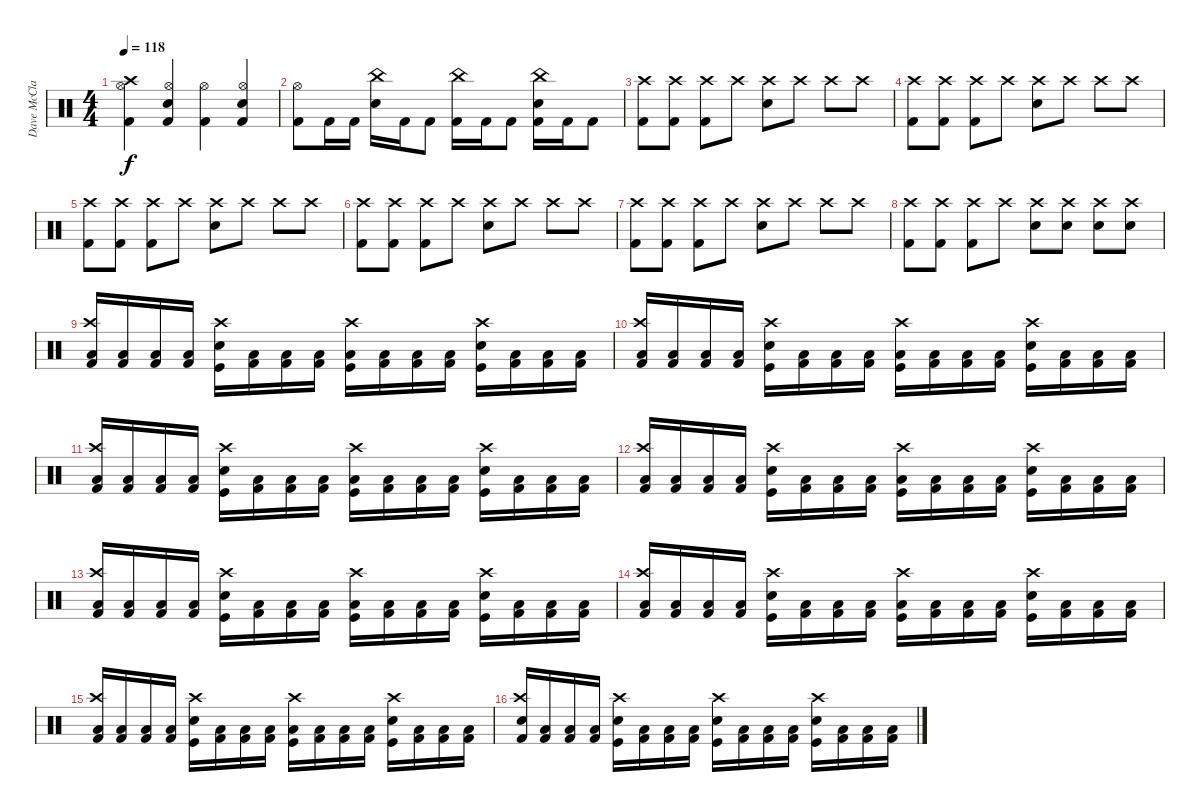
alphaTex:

\track ("Dave McClain" "Dave McCla") {instrument percussion}
\staff {score}
\articulation defaults
\ts (4 4)
\tempo 118
\clef neutral
\ks c
("Kick (hit) 2" "Hi-Hat (open)" "Crash high (hit)").4{dy f} ("Kick (hit) 2" "Snare (hit) 2" "Hi-Hat (open)").4 ("Kick (hit) 2" "Hi-Hat (open)").4 ("Kick (hit) 2" "Snare (hit) 2" "Hi-Hat (open)").4 |
("Kick (hit) 2" "Hi-Hat (open)").8 "Kick (hit) 2".16 "Kick (hit) 2".16 ("Snare (hit) 2" "China (hit)").16 "Kick (hit) 2".16 "Kick (hit) 2".8 ("Kick (hit) 2" "China (hit)").16 "Kick (hit) 2".16 "Kick (hit) 2".8 ("Kick (hit) 2" "Snare (hit) 2" "China (hit)").16 "Kick (hit) 2".16 "Kick (hit) 2".8 |
("Kick (hit) 2" "Crash high (hit)").8 ("Kick (hit) 2" "Crash high (hit)").8 ("Kick (hit) 2" "Crash high (hit)").8 "Crash high (hit)".8 ("Snare (hit) 2" "Crash high (hit)").8 "Crash high (hit)".8 "Crash high (hit)".8 "Crash high (hit)".8 |
("Kick (hit) 2" "Crash high (hit)").8 ("Kick (hit) 2" "Crash high (hit)").8 ("Kick (hit) 2" "Crash high (hit)").8 "Crash high (hit)".8 ("Snare (hit) 2" "Crash high (hit)").8 "Crash high (hit)".8 "Crash high (hit)".8 "Crash high (hit)".8 |
("Kick (hit) 2" "Crash high (hit)").8 ("Kick (hit) 2" "Crash high (hit)").8 ("Kick (hit) 2" "Crash high (hit)").8 "Crash high (hit)".8 ("Snare (hit) 2" "Crash high (hit)").8 "Crash high (hit)".8 "Crash high (hit)".8 "Crash high (hit)".8 |
("Kick (hit) 2" "Crash high (hit)").8 ("Kick (hit) 2" "Crash high (hit)").8 ("Kick (hit) 2" "Crash high (hit)").8 "Crash high (hit)".8 ("Snare (hit) 2" "Crash high (hit)").8 "Crash high (hit)".8 "Crash high (hit)".8 "Crash high (hit)".8 |
("Kick (hit) 2" "Crash high (hit)").8 ("Kick (hit) 2" "Crash high (hit)").8 ("Kick (hit) 2" "Crash high (hit)").8 "Crash high (hit)".8 ("Snare (hit) 2" "Crash high (hit)").8 "Crash high (hit)".8 "Crash high (hit)".8 "Crash high (hit)".8 |
("Kick (hit) 2" "Crash high (hit)").8 ("Kick (hit) 2" "Crash high (hit)").8 ("Kick (hit) 2" "Crash high (hit)").8 "Crash high (hit)".8 ("Snare (hit) 2" "Crash high (hit)").8 ("Snare (hit) 2" "Crash high (hit)").8 ("Snare (hit) 2" "Crash high (hit)").8 ("Snare (hit) 2" "Crash high (hit)").8 |
("Kick (hit) 2" "Low Floor Tom (hit)" "Crash high (hit)").16 ("Kick (hit) 2" "Low Floor Tom (hit)").16 ("Kick (hit) 2" "Low Floor Tom (hit)").16 ("Kick (hit) 2" "Low Floor Tom (hit)").16 ("Kick (hit)" "Snare (hit) 2" "Crash high (hit)").16 ("Kick (hit) 2" "Low Floor Tom (hit)").16 ("Kick (hit) 2" "Low Floor Tom (hit)").16 ("Kick (hit) 2" "Low Floor Tom (hit)").16 ("Kick (hit)" "Low Floor Tom (hit)" "Crash high (hit)").16 ("Kick (hit) 2" "Low Floor Tom (hit)").16 ("Kick (hit) 2" "Low Floor Tom (hit)").16 ("Kick (hit) 2" "Low Floor Tom (hit)").16 ("Kick (hit)" "Snare (hit) 2" "Crash high (hit)").16 ("Kick (hit) 2" "Low Floor Tom (hit)").16 ("Kick (hit) 2" "Low Floor Tom (hit)").16 ("Kick (hit) 2" "Low Floor Tom (hit)").16 |
("Kick (hit) 2" "Low Floor Tom (hit)" "Crash high (hit)").16 ("Kick (hit) 2" "Low Floor Tom (hit)").16 ("Kick (hit) 2" "Low Floor Tom (hit)").16 ("Kick (hit) 2" "Low Floor Tom (hit)").16 ("Kick (hit)" "Snare (hit) 2" "Crash high (hit)").16 ("Kick (hit) 2" "Low Floor Tom (hit)").16 ("Kick (hit) 2" "Low Floor Tom (hit)").16 ("Kick (hit) 2" "Low Floor Tom (hit)").16 ("Kick (hit)" "Low Floor Tom (hit)" "Crash high (hit)").16 ("Kick (hit) 2" "Low Floor Tom (hit)").16 ("Kick (hit) 2" "Low Floor Tom (hit)").16 ("Kick (hit) 2" "Low Floor Tom (hit)").16 ("Kick (hit)" "Snare (hit) 2" "Crash high (hit)").16 ("Kick (hit) 2" "Low Floor Tom (hit)").16 ("Kick (hit) 2" "Low Floor Tom (hit)").16 ("Kick (hit) 2" "Low Floor Tom (hit)").16 |
("Kick (hit) 2" "Low Floor Tom (hit)" "Crash high (hit)").16 ("Kick (hit) 2" "Low Floor Tom (hit)").16 ("Kick (hit) 2" "Low Floor Tom (hit)").16 ("Kick (hit) 2" "Low Floor Tom (hit)").16 ("Kick (hit)" "Snare (hit) 2" "Crash high (hit)").16 ("Kick (hit) 2" "Low Floor Tom (hit)").16 ("Kick (hit) 2" "Low Floor Tom (hit)").16 ("Kick (hit) 2" "Low Floor Tom (hit)").16 ("Kick (hit)" "Low Floor Tom (hit)" "Crash high (hit)").16 ("Kick (hit) 2" "Low Floor Tom (hit)").16 ("Kick (hit) 2" "Low Floor Tom (hit)").16 ("Kick (hit) 2" "Low Floor Tom (hit)").16 ("Kick (hit)" "Snare (hit) 2" "Crash high (hit)").16 ("Kick (hit) 2" "Low Floor Tom (hit)").16 ("Kick (hit) 2" "Low Floor Tom (hit)").16 ("Kick (hit) 2" "Low Floor Tom (hit)").16 |
("Kick (hit) 2" "Low Floor Tom (hit)" "Crash high (hit)").16 ("Kick (hit) 2" "Low Floor Tom (hit)").16 ("Kick (hit) 2" "Low Floor Tom (hit)").16 ("Kick (hit) 2" "Low Floor Tom (hit)").16 ("Kick (hit)" "Snare (hit) 2" "Crash high (hit)").16 ("Kick (hit) 2" "Low Floor Tom (hit)").16 ("Kick (hit) 2" "Low Floor Tom (hit)").16 ("Kick (hit) 2" "Low Floor Tom (hit)").16 ("Kick (hit)" "Low Floor Tom (hit)" "Crash high (hit)").16 ("Kick (hit) 2" "Low Floor Tom (hit)").16 ("Kick (hit) 2" "Low Floor Tom (hit)").16 ("Kick (hit) 2" "Low Floor Tom (hit)").16 ("Kick (hit)" "Snare (hit) 2" "Crash high (hit)").16 ("Kick (hit) 2" "Low Floor Tom (hit)").16 ("Kick (hit) 2" "Low Floor Tom (hit)").16 ("Kick (hit) 2" "Low Floor Tom (hit)").16 |
("Kick (hit) 2" "Low Floor Tom (hit)" "Crash high (hit)").16 ("Kick (hit) 2" "Low Floor Tom (hit)").16 ("Kick (hit) 2" "Low Floor Tom (hit)").16 ("Kick (hit) 2" "Low Floor Tom (hit)").16 ("Kick (hit)" "Snare (hit) 2" "Crash high (hit)").16 ("Kick (hit) 2" "Low Floor Tom (hit)").16 ("Kick (hit) 2" "Low Floor Tom (hit)").16 ("Kick (hit) 2" "Low Floor Tom (hit)").16 ("Kick (hit)" "Low Floor Tom (hit)" "Crash high (hit)").16 ("Kick (hit) 2" "Low Floor Tom (hit)").16 ("Kick (hit) 2" "Low Floor Tom (hit)").16 ("Kick (hit) 2" "Low Floor Tom (hit)").16 ("Kick (hit)" "Snare (hit) 2" "Crash high (hit)").16 ("Kick (hit) 2" "Low Floor Tom (hit)").16 ("Kick (hit) 2" "Low Floor Tom (hit)").16 ("Kick (hit) 2" "Low Floor Tom (hit)").16 |
("Kick (hit) 2" "Low Floor Tom (hit)" "Crash high (hit)").16 ("Kick (hit) 2" "Low Floor Tom (hit)").16 ("Kick (hit) 2" "Low Floor Tom (hit)").16 ("Kick (hit) 2" "Low Floor Tom (hit)").16 ("Kick (hit)" "Snare (hit) 2" "Crash high (hit)").16 ("Kick (hit) 2" "Low Floor Tom (hit)").16 ("Kick (hit) 2" "Low Floor Tom (hit)").16 ("Kick (hit) 2" "Low Floor Tom (hit)").16 ("Kick (hit)" "Low Floor Tom (hit)" "Crash high (hit)").16 ("Kick (hit) 2" "Low Floor Tom (hit)").16 ("Kick (hit) 2" "Low Floor Tom (hit)").16 ("Kick (hit) 2" "Low Floor Tom (hit)").16 ("Kick (hit)" "Snare (hit) 2" "Crash high (hit)").16 ("Kick (hit) 2" "Low Floor Tom (hit)").16 ("Kick (hit) 2" "Low Floor Tom (hit)").16 ("Kick (hit) 2" "Low Floor Tom (hit)").16 |
("Kick (hit) 2" "Low Floor Tom (hit)" "Crash high (hit)").16 ("Kick (hit) 2" "Low Floor Tom (hit)").16 ("Kick (hit) 2" "Low Floor Tom (hit)").16 ("Kick (hit) 2" "Low Floor Tom (hit)").16 ("Kick (hit)" "Snare (hit) 2" "Crash high (hit)").16 ("Kick (hit) 2" "Low Floor Tom (hit)").16 ("Kick (hit) 2" "Low Floor Tom (hit)").16 ("Kick (hit) 2" "Low Floor Tom (hit)").16 ("Kick (hit)" "Low Floor Tom (hit)" "Crash high (hit)").16 ("Kick (hit) 2" "Low Floor Tom (hit)").16 ("Kick (hit) 2" "Low Floor Tom (hit)").16 ("Kick (hit) 2" "Low Floor Tom (hit)").16 ("Kick (hit)" "Snare (hit) 2" "Crash high (hit)").16 ("Kick (hit) 2" "Low Floor Tom (hit)").16 ("Kick (hit) 2" "Low Floor Tom (hit)").16 ("Kick (hit) 2" "Low Floor Tom (hit)").16 |
("Kick (hit) 2" "Snare (hit) 2" "Crash high (hit)").16 ("Kick (hit) 2" "Low Floor Tom (hit)").16 ("Kick (hit) 2" "Low Floor Tom (hit)").16 ("Kick (hit) 2" "Low Floor Tom (hit)").16 ("Kick (hit)" "Snare (hit) 2" "Crash high (hit)").16 ("Kick (hit) 2" "Low Floor Tom (hit)").16 ("Kick (hit) 2" "Low Floor Tom (hit)").16 ("Kick (hit) 2" "Low Floor Tom (hit)").16 ("Kick (hit)" "Snare (hit) 2" "Crash high (hit)").16 ("Kick (hit) 2" "Low Floor Tom (hit)").16 ("Kick (hit) 2" "Low Floor Tom (hit)").16 ("Kick (hit) 2" "Low Floor Tom (hit)").16 ("Kick (hit)" "Snare (hit) 2" "Crash high (hit)").16 ("Kick (hit) 2" "Low Floor Tom (hit)").16 ("Kick (hit) 2" "Low Floor Tom (hit)").16 ("Kick (hit) 2" "Low Floor Tom (hit)").16
